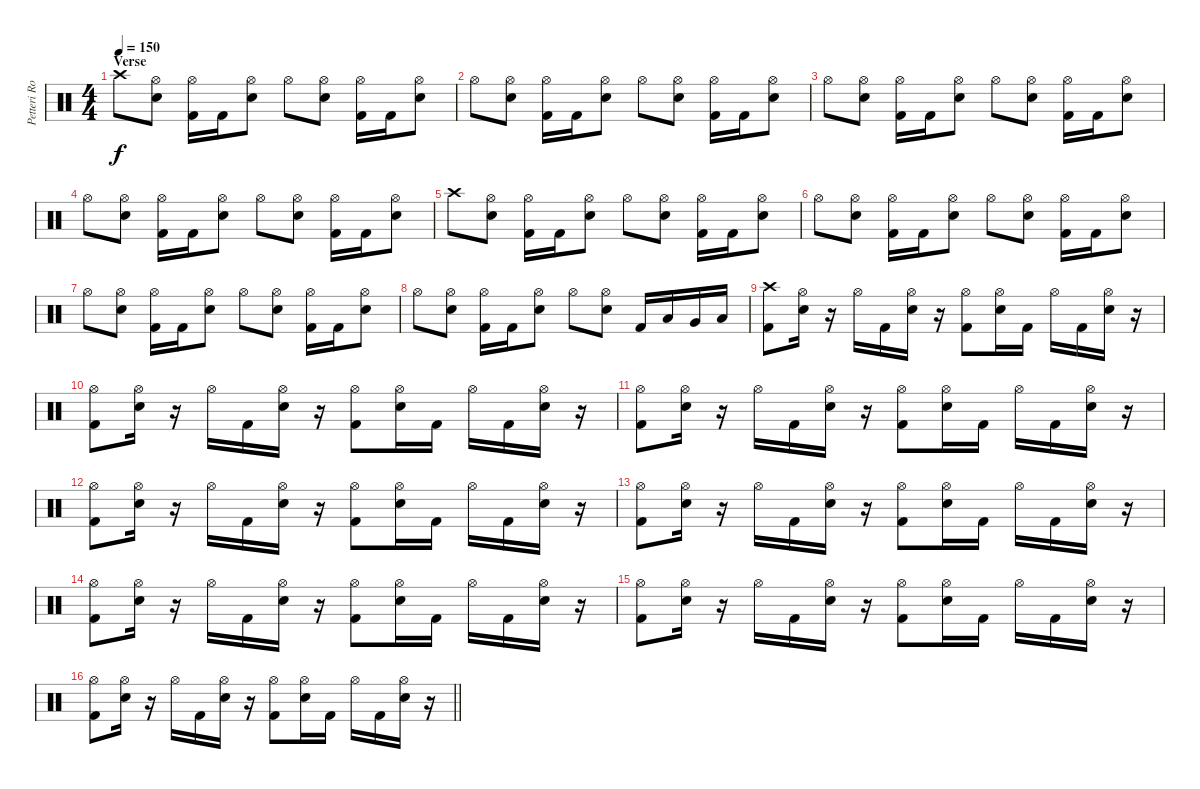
\track ("Petteri Rosenbom" "Petteri Ro") {instrument percussion}
\staff {score}
\articulation defaults
\ts (4 4)
\section ("" "Verse")
\tempo 150
\clef neutral
\ks c "Crash high (hit)".8{dy f}
("Hi-Hat (open)" "Electric Snare (hit)").8 ("Hi-Hat (open)" "Kick (hit) 2").16 "Kick (hit) 2".16 ("Hi-Hat (open)" "Electric Snare (hit)").8 "Hi-Hat (open)".8 ("Hi-Hat (open)" "Electric Snare (hit)").8 ("Hi-Hat (open)" "Kick (hit) 2").16 "Kick (hit) 2".16 ("Hi-Hat (open)" "Electric Snare (hit)").8 |
"Hi-Hat (open)".8 ("Hi-Hat (open)" "Electric Snare (hit)").8 ("Hi-Hat (open)" "Kick (hit) 2").16 "Kick (hit) 2".16 ("Hi-Hat (open)" "Electric Snare (hit)").8 "Hi-Hat (open)".8 ("Hi-Hat (open)" "Electric Snare (hit)").8 ("Hi-Hat (open)" "Kick (hit) 2").16 "Kick (hit) 2".16 ("Hi-Hat (open)" "Electric Snare (hit)").8 |
"Hi-Hat (open)".8 ("Hi-Hat (open)" "Electric Snare (hit)").8 ("Hi-Hat (open)" "Kick (hit) 2").16 "Kick (hit) 2".16 ("Hi-Hat (open)" "Electric Snare (hit)").8 "Hi-Hat (open)".8 ("Hi-Hat (open)" "Electric Snare (hit)").8 ("Hi-Hat (open)" "Kick (hit) 2").16 "Kick (hit) 2".16 ("Hi-Hat (open)" "Electric Snare (hit)").8 |
"Hi-Hat (open)".8 ("Hi-Hat (open)" "Electric Snare (hit)").8 ("Hi-Hat (open)" "Kick (hit) 2").16 "Kick (hit) 2".16 ("Hi-Hat (open)" "Electric Snare (hit)").8 "Hi-Hat (open)".8 ("Hi-Hat (open)" "Electric Snare (hit)").8 ("Hi-Hat (open)" "Kick (hit) 2").16 "Kick (hit) 2".16 ("Hi-Hat (open)" "Electric Snare (hit)").8 |
"Crash high (hit)".8 ("Hi-Hat (open)" "Electric Snare (hit)").8 ("Hi-Hat (open)" "Kick (hit) 2").16 "Kick (hit) 2".16 ("Hi-Hat (open)" "Electric Snare (hit)").8 "Hi-Hat (open)".8 ("Hi-Hat (open)" "Electric Snare (hit)").8 ("Hi-Hat (open)" "Kick (hit) 2").16 "Kick (hit) 2".16 ("Hi-Hat (open)" "Electric Snare (hit)").8 |
"Hi-Hat (open)".8 ("Hi-Hat (open)" "Electric Snare (hit)").8 ("Hi-Hat (open)" "Kick (hit) 2").16 "Kick (hit) 2".16 ("Hi-Hat (open)" "Electric Snare (hit)").8 "Hi-Hat (open)".8 ("Hi-Hat (open)" "Electric Snare (hit)").8 ("Hi-Hat (open)" "Kick (hit) 2").16 "Kick (hit) 2".16 ("Hi-Hat (open)" "Electric Snare (hit)").8 |
"Hi-Hat (open)".8 ("Hi-Hat (open)" "Electric Snare (hit)").8 ("Hi-Hat (open)" "Kick (hit) 2").16 "Kick (hit) 2".16 ("Hi-Hat (open)" "Electric Snare (hit)").8 "Hi-Hat (open)".8 ("Hi-Hat (open)" "Electric Snare (hit)").8 ("Hi-Hat (open)" "Kick (hit) 2").16 "Kick (hit) 2".16 ("Hi-Hat (open)" "Electric Snare (hit)").8 |
"Hi-Hat (open)".8 ("Hi-Hat (open)" "Electric Snare (hit)").8 ("Hi-Hat (open)" "Kick (hit) 2").16 "Kick (hit) 2".16 ("Hi-Hat (open)" "Electric Snare (hit)").8 "Hi-Hat (open)".8 ("Hi-Hat (open)" "Electric Snare (hit)").8 "Kick (hit) 2".16 "Low Floor Tom (hit)".16 "Very Low Tom (hit)".16 "Low Tom (hit)".16 |
("Crash high (hit)" "Kick (hit) 2").8 ("Hi-Hat (open)" "Electric Snare (hit)").16 r.16 "Hi-Hat (open)".16 "Kick (hit) 2".16 ("Hi-Hat (open)" "Electric Snare (hit)").16 r.16 ("Hi-Hat (open)" "Kick (hit) 2").8 ("Hi-Hat (open)" "Electric Snare (hit)").16 "Kick (hit) 2".16 "Hi-Hat (open)".16 "Kick (hit) 2".16 ("Hi-Hat (open)" "Electric Snare (hit)").16 r.16 |
("Hi-Hat (open)" "Kick (hit) 2").8 ("Hi-Hat (open)" "Electric Snare (hit)").16 r.16 "Hi-Hat (open)".16 "Kick (hit) 2".16 ("Hi-Hat (open)" "Electric Snare (hit)").16 r.16 ("Hi-Hat (open)" "Kick (hit) 2").8 ("Hi-Hat (open)" "Electric Snare (hit)").16 "Kick (hit) 2".16 "Hi-Hat (open)".16 "Kick (hit) 2".16 ("Hi-Hat (open)" "Electric Snare (hit)").16 r.16 |
("Hi-Hat (open)" "Kick (hit) 2").8 ("Hi-Hat (open)" "Electric Snare (hit)").16 r.16 "Hi-Hat (open)".16 "Kick (hit) 2".16 ("Hi-Hat (open)" "Electric Snare (hit)").16 r.16 ("Hi-Hat (open)" "Kick (hit) 2").8 ("Hi-Hat (open)" "Electric Snare (hit)").16 "Kick (hit) 2".16 "Hi-Hat (open)".16 "Kick (hit) 2".16 ("Hi-Hat (open)" "Electric Snare (hit)").16 r.16 |
("Hi-Hat (open)" "Kick (hit) 2").8 ("Hi-Hat (open)" "Electric Snare (hit)").16 r.16 "Hi-Hat (open)".16 "Kick (hit) 2".16 ("Hi-Hat (open)" "Electric Snare (hit)").16 r.16 ("Hi-Hat (open)" "Kick (hit) 2").8 ("Hi-Hat (open)" "Electric Snare (hit)").16 "Kick (hit) 2".16 "Hi-Hat (open)".16 "Kick (hit) 2".16 ("Hi-Hat (open)" "Electric Snare (hit)").16 r.16 |
("Hi-Hat (open)" "Kick (hit) 2").8 ("Hi-Hat (open)" "Electric Snare (hit)").16 r.16 "Hi-Hat (open)".16 "Kick (hit) 2".16 ("Hi-Hat (open)" "Electric Snare (hit)").16 r.16 ("Hi-Hat (open)" "Kick (hit) 2").8 ("Hi-Hat (open)" "Electric Snare (hit)").16 "Kick (hit) 2".16 "Hi-Hat (open)".16 "Kick (hit) 2".16 ("Hi-Hat (open)" "Electric Snare (hit)").16 r.16 |
("Hi-Hat (open)" "Kick (hit) 2").8 ("Hi-Hat (open)" "Electric Snare (hit)").16 r.16 "Hi-Hat (open)".16 "Kick (hit) 2".16 ("Hi-Hat (open)" "Electric Snare (hit)").16 r.16 ("Hi-Hat (open)" "Kick (hit) 2").8 ("Hi-Hat (open)" "Electric Snare (hit)").16 "Kick (hit) 2".16 "Hi-Hat (open)".16 "Kick (hit) 2".16 ("Hi-Hat (open)" "Electric Snare (hit)").16 r.16 |
("Hi-Hat (open)" "Kick (hit) 2").8 ("Hi-Hat (open)" "Electric Snare (hit)").16 r.16 "Hi-Hat (open)".16 "Kick (hit) 2".16 ("Hi-Hat (open)" "Electric Snare (hit)").16 r.16 ("Hi-Hat (open)" "Kick (hit) 2").8 ("Hi-Hat (open)" "Electric Snare (hit)").16 "Kick (hit) 2".16 "Hi-Hat (open)".16 "Kick (hit) 2".16 ("Hi-Hat (open)" "Electric Snare (hit)").16 r.16 |
\barLineRight lightlight
("Hi-Hat (open)" "Kick (hit) 2").8 ("Hi-Hat (open)" "Electric Snare (hit)").16 r.16 "Hi-Hat (open)".16 "Kick (hit) 2".16 ("Hi-Hat (open)" "Electric Snare (hit)").16 r.16 ("Hi-Hat (open)" "Kick (hit) 2").8 ("Hi-Hat (open)" "Electric Snare (hit)").16 "Kick (hit) 2".16 "Hi-Hat (open)".16 "Kick (hit) 2".16 ("Hi-Hat (open)" "Electric Snare (hit)").16 r.16
